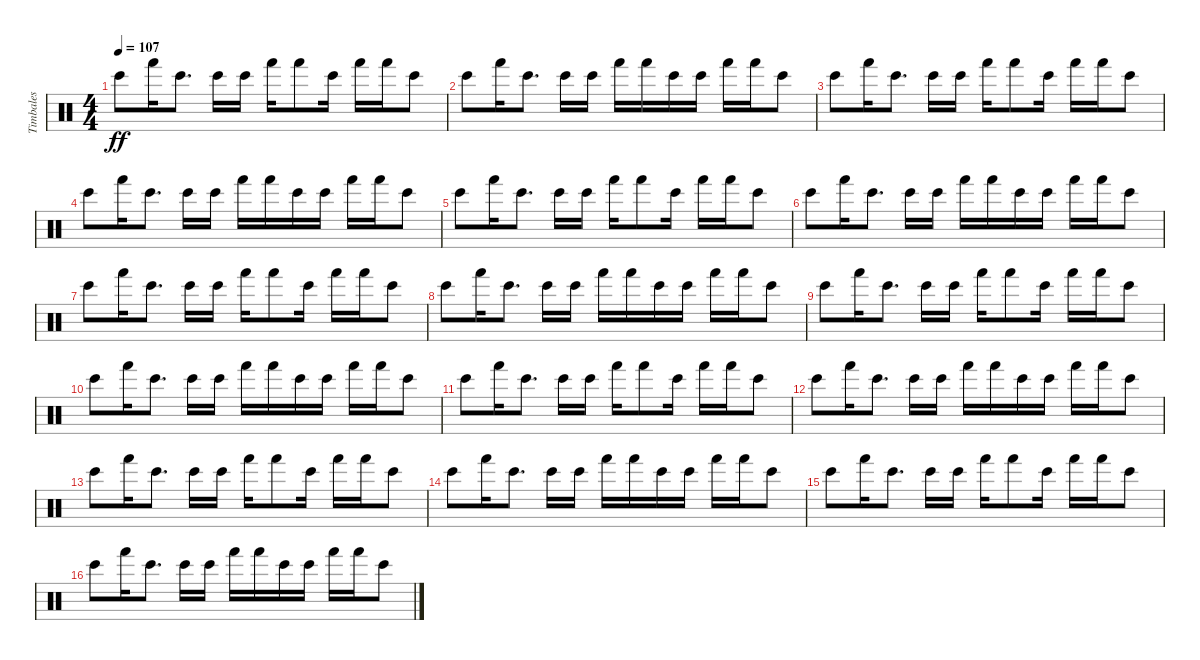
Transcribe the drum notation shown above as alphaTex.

\track ("Timbales" "Timbales") {instrument percussion}
\staff {score}
\articulation defaults
\ts (4 4)
\tempo 107
\clef neutral
\ks c "Bongo High (hit)".8{dy ff} "Hand (hit)".16 "Bongo High (hit)".8{d} "Bongo High (hit)".16 "Bongo High (hit)".16 "Hand (hit)".16 "Hand (hit)".8 "Bongo High (hit)".16 "Hand (hit)".16 "Hand (hit)".16 "Bongo High (hit)".8
|
"Bongo High (hit)".8 "Hand (hit)".16 "Bongo High (hit)".8{d} "Bongo High (hit)".16 "Bongo High (hit)".16 "Hand (hit)".16 "Hand (hit)".16 "Bongo High (hit)".16 "Bongo High (hit)".16 "Hand (hit)".16 "Hand (hit)".16 "Bongo High (hit)".8 |
"Bongo High (hit)".8 "Hand (hit)".16 "Bongo High (hit)".8{d} "Bongo High (hit)".16 "Bongo High (hit)".16 "Hand (hit)".16 "Hand (hit)".8 "Bongo High (hit)".16 "Hand (hit)".16 "Hand (hit)".16 "Bongo High (hit)".8 |
"Bongo High (hit)".8 "Hand (hit)".16 "Bongo High (hit)".8{d} "Bongo High (hit)".16 "Bongo High (hit)".16 "Hand (hit)".16 "Hand (hit)".16 "Bongo High (hit)".16 "Bongo High (hit)".16 "Hand (hit)".16 "Hand (hit)".16 "Bongo High (hit)".8 |
"Bongo High (hit)".8 "Hand (hit)".16 "Bongo High (hit)".8{d} "Bongo High (hit)".16 "Bongo High (hit)".16 "Hand (hit)".16 "Hand (hit)".8 "Bongo High (hit)".16 "Hand (hit)".16 "Hand (hit)".16 "Bongo High (hit)".8 |
"Bongo High (hit)".8 "Hand (hit)".16 "Bongo High (hit)".8{d} "Bongo High (hit)".16 "Bongo High (hit)".16 "Hand (hit)".16 "Hand (hit)".16 "Bongo High (hit)".16 "Bongo High (hit)".16 "Hand (hit)".16 "Hand (hit)".16 "Bongo High (hit)".8 |
"Bongo High (hit)".8 "Hand (hit)".16 "Bongo High (hit)".8{d} "Bongo High (hit)".16 "Bongo High (hit)".16 "Hand (hit)".16 "Hand (hit)".8 "Bongo High (hit)".16 "Hand (hit)".16 "Hand (hit)".16 "Bongo High (hit)".8 |
"Bongo High (hit)".8 "Hand (hit)".16 "Bongo High (hit)".8{d} "Bongo High (hit)".16 "Bongo High (hit)".16 "Hand (hit)".16 "Hand (hit)".16 "Bongo High (hit)".16 "Bongo High (hit)".16 "Hand (hit)".16 "Hand (hit)".16 "Bongo High (hit)".8 |
"Bongo High (hit)".8 "Hand (hit)".16 "Bongo High (hit)".8{d} "Bongo High (hit)".16 "Bongo High (hit)".16 "Hand (hit)".16 "Hand (hit)".8 "Bongo High (hit)".16 "Hand (hit)".16 "Hand (hit)".16 "Bongo High (hit)".8 |
"Bongo High (hit)".8 "Hand (hit)".16 "Bongo High (hit)".8{d} "Bongo High (hit)".16 "Bongo High (hit)".16 "Hand (hit)".16 "Hand (hit)".16 "Bongo High (hit)".16 "Bongo High (hit)".16 "Hand (hit)".16 "Hand (hit)".16 "Bongo High (hit)".8 |
"Bongo High (hit)".8 "Hand (hit)".16 "Bongo High (hit)".8{d} "Bongo High (hit)".16 "Bongo High (hit)".16 "Hand (hit)".16 "Hand (hit)".8 "Bongo High (hit)".16 "Hand (hit)".16 "Hand (hit)".16 "Bongo High (hit)".8 |
"Bongo High (hit)".8 "Hand (hit)".16 "Bongo High (hit)".8{d} "Bongo High (hit)".16 "Bongo High (hit)".16 "Hand (hit)".16 "Hand (hit)".16 "Bongo High (hit)".16 "Bongo High (hit)".16 "Hand (hit)".16 "Hand (hit)".16 "Bongo High (hit)".8 |
"Bongo High (hit)".8 "Hand (hit)".16 "Bongo High (hit)".8{d} "Bongo High (hit)".16 "Bongo High (hit)".16 "Hand (hit)".16 "Hand (hit)".8 "Bongo High (hit)".16 "Hand (hit)".16 "Hand (hit)".16 "Bongo High (hit)".8 |
"Bongo High (hit)".8 "Hand (hit)".16 "Bongo High (hit)".8{d} "Bongo High (hit)".16 "Bongo High (hit)".16 "Hand (hit)".16 "Hand (hit)".16 "Bongo High (hit)".16 "Bongo High (hit)".16 "Hand (hit)".16 "Hand (hit)".16 "Bongo High (hit)".8 |
"Bongo High (hit)".8 "Hand (hit)".16 "Bongo High (hit)".8{d} "Bongo High (hit)".16 "Bongo High (hit)".16 "Hand (hit)".16 "Hand (hit)".8 "Bongo High (hit)".16 "Hand (hit)".16 "Hand (hit)".16 "Bongo High (hit)".8 |
"Bongo High (hit)".8 "Hand (hit)".16 "Bongo High (hit)".8{d} "Bongo High (hit)".16 "Bongo High (hit)".16 "Hand (hit)".16 "Hand (hit)".16 "Bongo High (hit)".16 "Bongo High (hit)".16 "Hand (hit)".16 "Hand (hit)".16 "Bongo High (hit)".8
